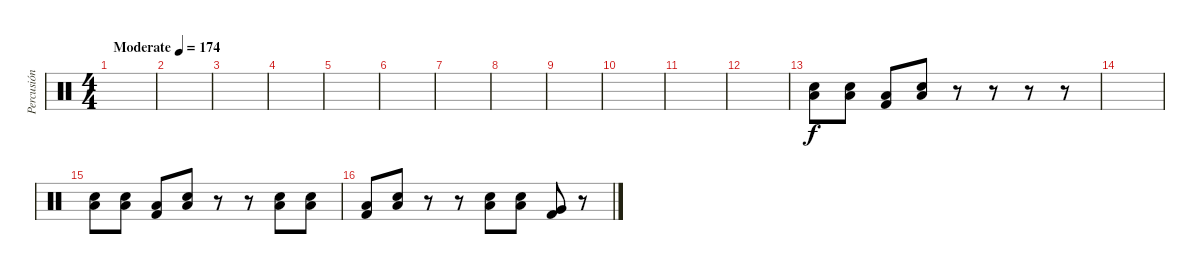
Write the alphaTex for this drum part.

\track ("Percusión" "Percusión") {instrument percussion}
\staff {score}
\articulation defaults
\ts (4 4)
\tempo (174 "Moderate")
\clef neutral
\ks c
|
|
|
|
|
|
|
|
|
|
|
|
("Low Tom (hit)" "Electric Snare (hit)").8 ("Low Tom (hit)" "Electric Snare (hit)").8 ("Low Floor Tom (hit)" "Kick (hit) 2").8 ("Low Floor Tom (hit)" "Electric Snare (hit)").8 r.8 r.8 r.8 r.8 |
|
("Low Tom (hit)" "Electric Snare (hit)").8 ("Low Tom (hit)" "Electric Snare (hit)").8 ("Low Floor Tom (hit)" "Kick (hit) 2").8 ("Low Floor Tom (hit)" "Electric Snare (hit)").8 r.8 r.8 ("Low Tom (hit)" "Electric Snare (hit)").8 ("Low Tom (hit)" "Electric Snare (hit)").8 |
("Low Floor Tom (hit)" "Kick (hit) 2").8 ("Low Floor Tom (hit)" "Electric Snare (hit)").8 r.8 r.8 ("Low Tom (hit)" "Electric Snare (hit)").8 ("Low Tom (hit)" "Electric Snare (hit)").8 ("Very Low Tom (hit)" "Kick (hit) 2").8 r.8
